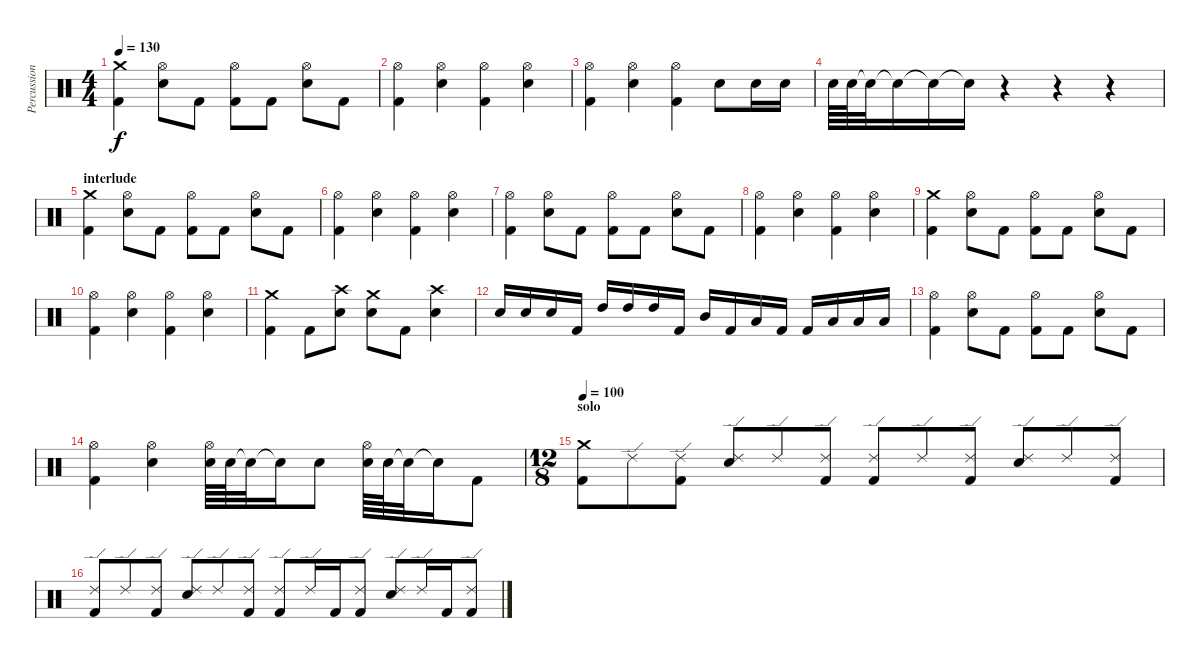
\track ("Percussions" "Percussion") {instrument percussion}
\staff {score}
\articulation defaults
\ts (4 4)
\tempo 130
\clef neutral
\ks c
("Crash medium (hit)" "Kick (hit) 2").4{dy f} ("Hi-Hat (open)" "Electric Snare (hit)").8 "Kick (hit) 2".8 ("Hi-Hat (open)" "Kick (hit) 2").8 "Kick (hit) 2".8 ("Hi-Hat (open)" "Electric Snare (hit)").8 "Kick (hit) 2".8 |
("Hi-Hat (open)" "Kick (hit) 2").4 ("Hi-Hat (open)" "Electric Snare (hit)").4 ("Hi-Hat (open)" "Kick (hit) 2").4 ("Hi-Hat (open)" "Electric Snare (hit)").4 |
("Hi-Hat (open)" "Kick (hit) 2").4 ("Hi-Hat (open)" "Electric Snare (hit)").4 ("Hi-Hat (open)" "Kick (hit) 2").4 "Electric Snare (hit)".8 "Electric Snare (hit)".16 "Electric Snare (hit)".16 |
"Electric Snare (hit)".64 "Electric Snare (hit)".64 "Snare (hit)"{t}.32 "Snare (hit)"{t}.16 "Snare (hit)"{t}.16 "Snare (hit)"{t}.16 r.4 r.4 r.4 |
\section ("" "interlude")
("Crash medium (hit)" "Kick (hit) 2").4 ("Hi-Hat (open)" "Electric Snare (hit)").8 "Kick (hit) 2".8 ("Hi-Hat (open)" "Kick (hit) 2").8 "Kick (hit) 2".8 ("Hi-Hat (open)" "Electric Snare (hit)").8 "Kick (hit) 2".8 |
("Hi-Hat (open)" "Kick (hit) 2").4 ("Hi-Hat (open)" "Electric Snare (hit)").4 ("Hi-Hat (open)" "Kick (hit) 2").4 ("Hi-Hat (open)" "Electric Snare (hit)").4 |
("Hi-Hat (open)" "Kick (hit) 2").4 ("Hi-Hat (open)" "Electric Snare (hit)").8 "Kick (hit) 2".8 ("Hi-Hat (open)" "Kick (hit) 2").8 "Kick (hit) 2".8 ("Hi-Hat (open)" "Electric Snare (hit)").8 "Kick (hit) 2".8 |
("Hi-Hat (open)" "Kick (hit) 2").4 ("Hi-Hat (open)" "Electric Snare (hit)").4 ("Hi-Hat (open)" "Kick (hit) 2").4 ("Hi-Hat (open)" "Electric Snare (hit)").4 |
("Crash medium (hit)" "Kick (hit) 2").4 ("Hi-Hat (open)" "Electric Snare (hit)").8 "Kick (hit) 2".8 ("Hi-Hat (open)" "Kick (hit) 2").8 "Kick (hit) 2".8 ("Hi-Hat (open)" "Electric Snare (hit)").8 "Kick (hit) 2".8 |
("Hi-Hat (open)" "Kick (hit) 2").4 ("Hi-Hat (open)" "Electric Snare (hit)").4 ("Hi-Hat (open)" "Kick (hit) 2").4 ("Hi-Hat (open)" "Electric Snare (hit)").4 |
("Crash medium (hit)" "Kick (hit) 2").4 "Kick (hit) 2".8 ("Crash high (hit)" "Electric Snare (hit)").8 ("Crash medium (hit)" "Electric Snare (hit)").8 "Kick (hit) 2".8 ("Crash high (hit)" "Electric Snare (hit)").4 |
"Electric Snare (hit)".16 "Electric Snare (hit)".16 "Electric Snare (hit)".16 "Kick (hit) 2".16 "High Tom (hit)".16 "High Tom (hit)".16 "High Tom (hit)".16 "Kick (hit) 2".16 "Mid Tom (hit)".16 "Kick (hit) 2".16 "Low Tom (hit)".16 "Kick (hit) 2".16 "Kick (hit) 2".16 "Low Tom (hit)".16 "Low Tom (hit)".16 "Low Tom (hit)".16 |
("Hi-Hat (open)" "Kick (hit) 2").4 ("Hi-Hat (open)" "Electric Snare (hit)").8 "Kick (hit) 2".8 ("Hi-Hat (open)" "Kick (hit) 2").8 "Kick (hit) 2".8 ("Hi-Hat (open)" "Electric Snare (hit)").8 "Kick (hit) 2".8 |
("Hi-Hat (open)" "Kick (hit) 2").4 ("Hi-Hat (open)" "Electric Snare (hit)").4 ("Hi-Hat (open)" "Electric Snare (hit)").64 "Electric Snare (hit)".64 "Snare (hit)"{t}.32 "Snare (hit)"{t}.16 "Electric Snare (hit)".8 ("Hi-Hat (open)" "Electric Snare (hit)").64 "Electric Snare (hit)".64 "Snare (hit)"{t}.32 "Snare (hit)"{t}.16 "Kick (hit) 2".8 |
\ts (12 8)
\section ("" "solo")
\tempo 100
("Crash medium (hit)" "Kick (hit) 2").8 "Ride (edge) 2".8 ("Ride (edge) 2" "Kick (hit) 2").8 ("Ride (edge) 2" "Electric Snare (hit)").8 "Ride (edge) 2".8 ("Ride (edge) 2" "Kick (hit) 2").8 ("Ride (edge) 2" "Kick (hit) 2").8 "Ride (edge) 2".8 ("Ride (edge) 2" "Kick (hit) 2").8 ("Ride (edge) 2" "Electric Snare (hit)").8 "Ride (edge) 2".8 ("Ride (edge) 2" "Kick (hit) 2").8 |
("Ride (edge) 2" "Kick (hit) 2").8 "Ride (edge) 2".8 ("Ride (edge) 2" "Kick (hit) 2").8 ("Ride (edge) 2" "Electric Snare (hit)").8 "Ride (edge) 2".8 ("Ride (edge) 2" "Kick (hit) 2").8 ("Ride (edge) 2" "Kick (hit) 2").8 "Ride (edge) 2".16 "Kick (hit) 2".16 ("Ride (edge) 2" "Kick (hit) 2").8 ("Ride (edge) 2" "Electric Snare (hit)").8 "Ride (edge) 2".16 "Kick (hit) 2".16 ("Ride (edge) 2" "Kick (hit) 2").8
